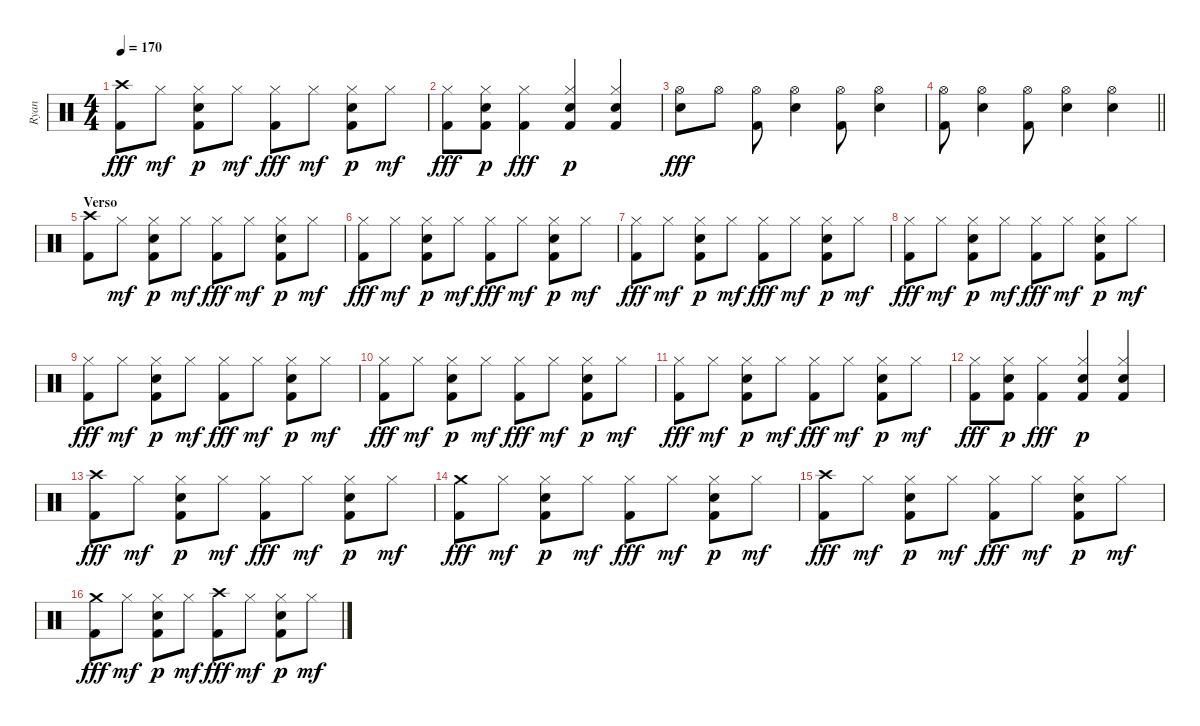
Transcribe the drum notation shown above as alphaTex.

\track ("Ryan" "Ryan") {instrument percussion}
\staff {score}
\articulation defaults
\ts (4 4)
\tempo 170
\clef neutral
\ks c
("Kick (hit) 2" "Crash high (hit)").8{dy fff} "Hi-Hat (closed)".8{dy mf} ("Snare (hit) 2" "Hi-Hat (closed)" "Kick (hit) 2").8{dy p} "Hi-Hat (closed)".8{dy mf} ("Kick (hit) 2" "Hi-Hat (closed)").8{dy fff} "Hi-Hat (closed)".8{dy mf} ("Snare (hit) 2" "Hi-Hat (closed)" "Kick (hit) 2").8{dy p} "Hi-Hat (closed)".8{dy mf} |
("Kick (hit) 2" "Hi-Hat (closed)").8{dy fff} ("Snare (hit) 2" "Hi-Hat (closed)" "Kick (hit) 2").8{dy p} ("Kick (hit) 2" "Hi-Hat (closed)").4{dy fff} ("Snare (hit) 2" "Hi-Hat (closed)" "Kick (hit) 2").4{dy p} ("Snare (hit) 2" "Hi-Hat (closed)" "Kick (hit) 2").4 |
("Hi-Hat (open)" "Snare (hit) 2").8{dy fff} "Hi-Hat (open)".8 ("Hi-Hat (open)" "Kick (hit) 2").8 ("Hi-Hat (open)" "Snare (hit) 2").4 ("Hi-Hat (open)" "Kick (hit) 2").8 ("Hi-Hat (open)" "Snare (hit) 2").4 |
\barLineRight lightlight
("Hi-Hat (open)" "Kick (hit) 2").8 ("Hi-Hat (open)" "Snare (hit) 2").4 ("Hi-Hat (open)" "Kick (hit) 2").8 ("Hi-Hat (open)" "Snare (hit) 2").4 ("Hi-Hat (open)" "Snare (hit) 2").4 |
\section ("" "Verso")
("Kick (hit) 2" "Crash high (hit)").8 "Hi-Hat (closed)".8{dy mf} ("Snare (hit) 2" "Hi-Hat (closed)" "Kick (hit) 2").8{dy p} "Hi-Hat (closed)".8{dy mf} ("Kick (hit) 2" "Hi-Hat (closed)").8{dy fff} "Hi-Hat (closed)".8{dy mf} ("Snare (hit) 2" "Hi-Hat (closed)" "Kick (hit) 2").8{dy p} "Hi-Hat (closed)".8{dy mf} |
("Kick (hit) 2" "Hi-Hat (closed)").8{dy fff} "Hi-Hat (closed)".8{dy mf} ("Snare (hit) 2" "Hi-Hat (closed)" "Kick (hit) 2").8{dy p} "Hi-Hat (closed)".8{dy mf} ("Kick (hit) 2" "Hi-Hat (closed)").8{dy fff} "Hi-Hat (closed)".8{dy mf} ("Snare (hit) 2" "Hi-Hat (closed)" "Kick (hit) 2").8{dy p} "Hi-Hat (closed)".8{dy mf} |
("Kick (hit) 2" "Hi-Hat (closed)").8{dy fff} "Hi-Hat (closed)".8{dy mf} ("Snare (hit) 2" "Hi-Hat (closed)" "Kick (hit) 2").8{dy p} "Hi-Hat (closed)".8{dy mf} ("Kick (hit) 2" "Hi-Hat (closed)").8{dy fff} "Hi-Hat (closed)".8{dy mf} ("Snare (hit) 2" "Hi-Hat (closed)" "Kick (hit) 2").8{dy p} "Hi-Hat (closed)".8{dy mf} |
("Kick (hit) 2" "Hi-Hat (closed)").8{dy fff} "Hi-Hat (closed)".8{dy mf} ("Snare (hit) 2" "Hi-Hat (closed)" "Kick (hit) 2").8{dy p} "Hi-Hat (closed)".8{dy mf} ("Kick (hit) 2" "Hi-Hat (closed)").8{dy fff} "Hi-Hat (closed)".8{dy mf} ("Snare (hit) 2" "Hi-Hat (closed)" "Kick (hit) 2").8{dy p} "Hi-Hat (closed)".8{dy mf} |
("Kick (hit) 2" "Hi-Hat (closed)").8{dy fff} "Hi-Hat (closed)".8{dy mf} ("Snare (hit) 2" "Hi-Hat (closed)" "Kick (hit) 2").8{dy p} "Hi-Hat (closed)".8{dy mf} ("Kick (hit) 2" "Hi-Hat (closed)").8{dy fff} "Hi-Hat (closed)".8{dy mf} ("Snare (hit) 2" "Hi-Hat (closed)" "Kick (hit) 2").8{dy p} "Hi-Hat (closed)".8{dy mf} |
("Kick (hit) 2" "Hi-Hat (closed)").8{dy fff} "Hi-Hat (closed)".8{dy mf} ("Snare (hit) 2" "Hi-Hat (closed)" "Kick (hit) 2").8{dy p} "Hi-Hat (closed)".8{dy mf} ("Kick (hit) 2" "Hi-Hat (closed)").8{dy fff} "Hi-Hat (closed)".8{dy mf} ("Snare (hit) 2" "Hi-Hat (closed)" "Kick (hit) 2").8{dy p} "Hi-Hat (closed)".8{dy mf} |
("Kick (hit) 2" "Hi-Hat (closed)").8{dy fff} "Hi-Hat (closed)".8{dy mf} ("Snare (hit) 2" "Hi-Hat (closed)" "Kick (hit) 2").8{dy p} "Hi-Hat (closed)".8{dy mf} ("Kick (hit) 2" "Hi-Hat (closed)").8{dy fff} "Hi-Hat (closed)".8{dy mf} ("Snare (hit) 2" "Hi-Hat (closed)" "Kick (hit) 2").8{dy p} "Hi-Hat (closed)".8{dy mf} |
("Kick (hit) 2" "Hi-Hat (closed)").8{dy fff} ("Snare (hit) 2" "Hi-Hat (closed)" "Kick (hit) 2").8{dy p} ("Kick (hit) 2" "Hi-Hat (closed)").4{dy fff} ("Snare (hit) 2" "Hi-Hat (closed)" "Kick (hit) 2").4{dy p} ("Snare (hit) 2" "Hi-Hat (closed)" "Kick (hit) 2").4 |
("Kick (hit) 2" "Crash high (hit)").8{dy fff} "Hi-Hat (closed)".8{dy mf} ("Snare (hit) 2" "Hi-Hat (closed)" "Kick (hit) 2").8{dy p} "Hi-Hat (closed)".8{dy mf} ("Kick (hit) 2" "Hi-Hat (closed)").8{dy fff} "Hi-Hat (closed)".8{dy mf} ("Snare (hit) 2" "Hi-Hat (closed)" "Kick (hit) 2").8{dy p} "Hi-Hat (closed)".8{dy mf} |
("Kick (hit) 2" "Crash medium (hit)").8{dy fff} "Hi-Hat (closed)".8{dy mf} ("Snare (hit) 2" "Hi-Hat (closed)" "Kick (hit) 2").8{dy p} "Hi-Hat (closed)".8{dy mf} ("Kick (hit) 2" "Hi-Hat (closed)").8{dy fff} "Hi-Hat (closed)".8{dy mf} ("Snare (hit) 2" "Hi-Hat (closed)" "Kick (hit) 2").8{dy p} "Hi-Hat (closed)".8{dy mf} |
("Kick (hit) 2" "Crash high (hit)").8{dy fff} "Hi-Hat (closed)".8{dy mf} ("Snare (hit) 2" "Hi-Hat (closed)" "Kick (hit) 2").8{dy p} "Hi-Hat (closed)".8{dy mf} ("Kick (hit) 2" "Hi-Hat (closed)").8{dy fff} "Hi-Hat (closed)".8{dy mf} ("Snare (hit) 2" "Hi-Hat (closed)" "Kick (hit) 2").8{dy p} "Hi-Hat (closed)".8{dy mf} |
("Kick (hit) 2" "Crash medium (hit)").8{dy fff} "Hi-Hat (closed)".8{dy mf} ("Snare (hit) 2" "Hi-Hat (closed)" "Kick (hit) 2").8{dy p} "Hi-Hat (closed)".8{dy mf} ("Kick (hit) 2" "Crash high (hit)").8{dy fff} "Hi-Hat (closed)".8{dy mf} ("Snare (hit) 2" "Hi-Hat (closed)" "Kick (hit) 2").8{dy p} "Hi-Hat (closed)".8{dy mf}
